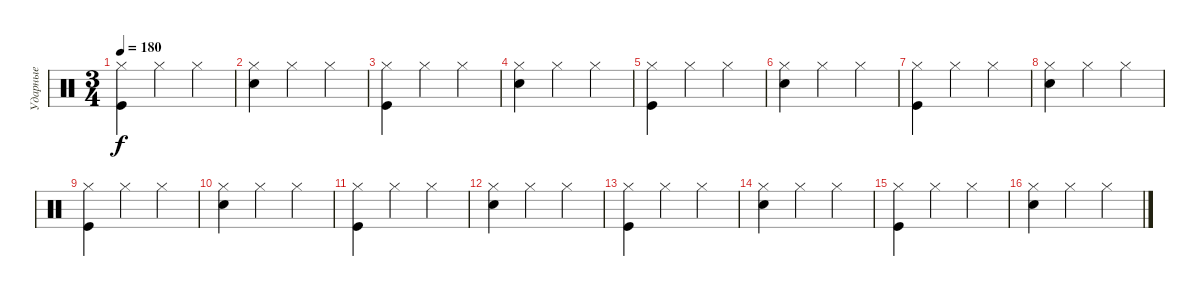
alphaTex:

\track ("Ударные" "Ударные") {instrument percussion}
\staff {score}
\articulation defaults
\ts (3 4)
\tempo 180
\clef neutral
\ks c
("Kick (hit)" "Hi-Hat (closed)").4{dy f} "Hi-Hat (closed)".4 "Hi-Hat (closed)".4 |
("Snare (hit) 2" "Hi-Hat (closed)").4 "Hi-Hat (closed)".4 "Hi-Hat (closed)".4 |
("Kick (hit)" "Hi-Hat (closed)").4 "Hi-Hat (closed)".4 "Hi-Hat (closed)".4 |
("Snare (hit) 2" "Hi-Hat (closed)").4 "Hi-Hat (closed)".4 "Hi-Hat (closed)".4 |
("Kick (hit)" "Hi-Hat (closed)").4 "Hi-Hat (closed)".4 "Hi-Hat (closed)".4 |
("Snare (hit) 2" "Hi-Hat (closed)").4 "Hi-Hat (closed)".4 "Hi-Hat (closed)".4 |
("Kick (hit)" "Hi-Hat (closed)").4 "Hi-Hat (closed)".4 "Hi-Hat (closed)".4 |
("Snare (hit) 2" "Hi-Hat (closed)").4 "Hi-Hat (closed)".4 "Hi-Hat (closed)".4 |
("Kick (hit)" "Hi-Hat (closed)").4 "Hi-Hat (closed)".4 "Hi-Hat (closed)".4 |
("Snare (hit) 2" "Hi-Hat (closed)").4 "Hi-Hat (closed)".4 "Hi-Hat (closed)".4 |
("Kick (hit)" "Hi-Hat (closed)").4 "Hi-Hat (closed)".4 "Hi-Hat (closed)".4 |
("Snare (hit) 2" "Hi-Hat (closed)").4 "Hi-Hat (closed)".4 "Hi-Hat (closed)".4 |
("Kick (hit)" "Hi-Hat (closed)").4 "Hi-Hat (closed)".4 "Hi-Hat (closed)".4 |
("Snare (hit) 2" "Hi-Hat (closed)").4 "Hi-Hat (closed)".4 "Hi-Hat (closed)".4 |
("Kick (hit)" "Hi-Hat (closed)").4 "Hi-Hat (closed)".4 "Hi-Hat (closed)".4 |
("Snare (hit) 2" "Hi-Hat (closed)").4 "Hi-Hat (closed)".4 "Hi-Hat (closed)".4
